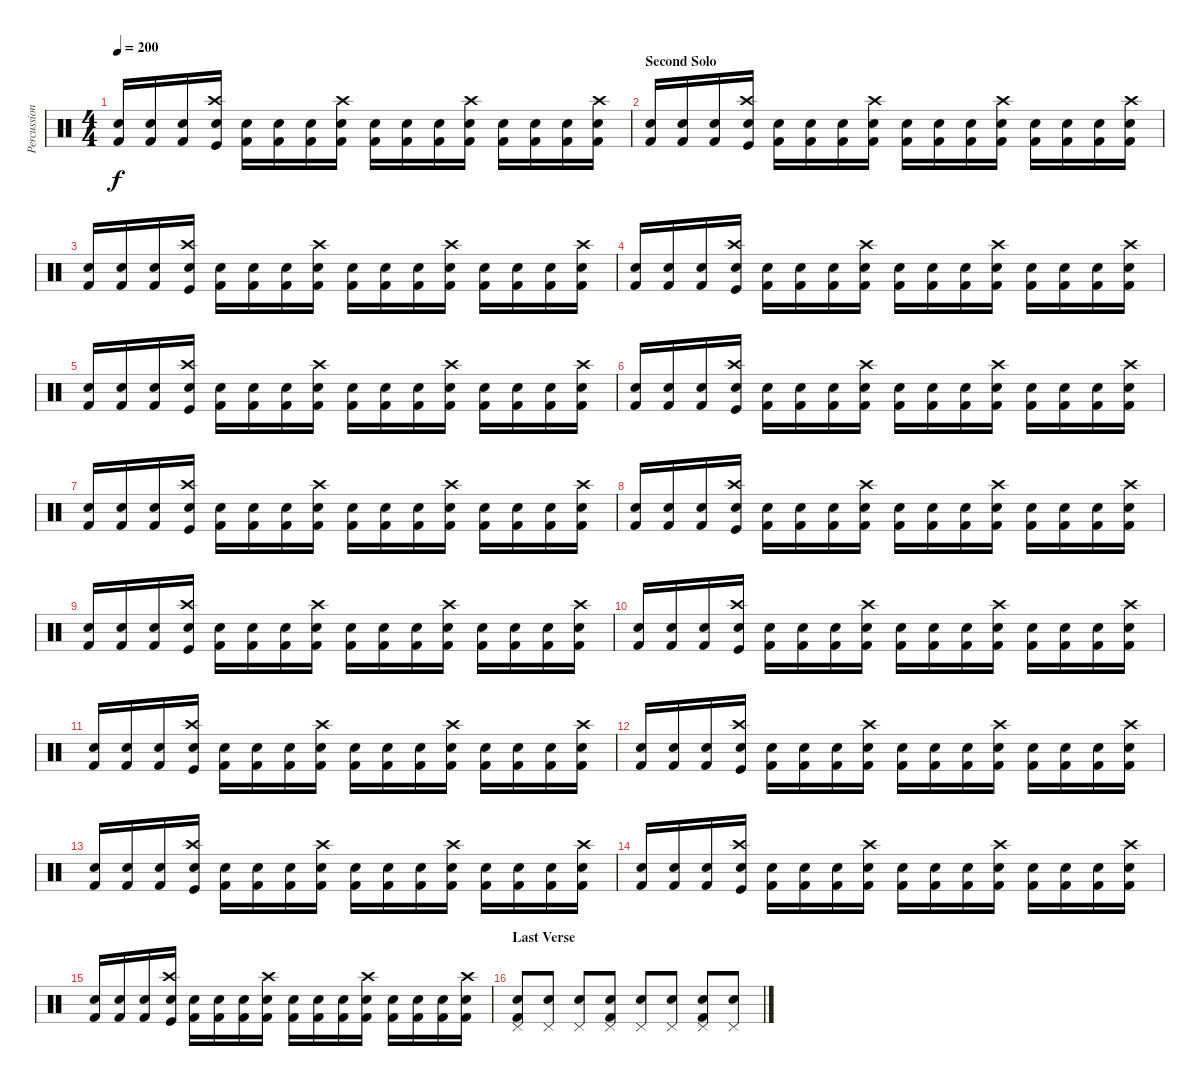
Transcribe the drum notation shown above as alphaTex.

\track ("Percussion" "Percussion") {instrument percussion}
\staff {score}
\articulation defaults
\ts (4 4)
\tempo 200
\clef neutral
\ks c
("Kick (hit) 2" "Snare (hit) 2").16{dy f} ("Snare (hit) 2" "Kick (hit) 2").16 ("Kick (hit) 2" "Snare (hit) 2").16 ("Crash high (hit)" "Kick (hit)" "Snare (hit) 2").16 ("Snare (hit) 2" "Kick (hit) 2").16 ("Kick (hit) 2" "Snare (hit) 2").16 ("Kick (hit) 2" "Snare (hit) 2").16 ("Kick (hit) 2" "Snare (hit) 2" "Crash high (hit)").16 ("Kick (hit) 2" "Snare (hit) 2").16 ("Snare (hit) 2" "Kick (hit) 2").16 ("Kick (hit) 2" "Snare (hit) 2").16 ("Kick (hit) 2" "Snare (hit) 2" "Crash high (hit)").16 ("Kick (hit) 2" "Snare (hit) 2").16 ("Snare (hit) 2" "Kick (hit) 2").16 ("Kick (hit) 2" "Snare (hit) 2").16 ("Kick (hit) 2" "Crash high (hit)" "Snare (hit) 2").16 |
\section ("" "Second Solo")
("Kick (hit) 2" "Snare (hit) 2").16 ("Snare (hit) 2" "Kick (hit) 2").16 ("Kick (hit) 2" "Snare (hit) 2").16 ("Crash high (hit)" "Kick (hit)" "Snare (hit) 2").16 ("Snare (hit) 2" "Kick (hit) 2").16 ("Kick (hit) 2" "Snare (hit) 2").16 ("Kick (hit) 2" "Snare (hit) 2").16 ("Kick (hit) 2" "Snare (hit) 2" "Crash high (hit)").16 ("Kick (hit) 2" "Snare (hit) 2").16 ("Snare (hit) 2" "Kick (hit) 2").16 ("Kick (hit) 2" "Snare (hit) 2").16 ("Kick (hit) 2" "Snare (hit) 2" "Crash high (hit)").16 ("Kick (hit) 2" "Snare (hit) 2").16 ("Snare (hit) 2" "Kick (hit) 2").16 ("Kick (hit) 2" "Snare (hit) 2").16 ("Kick (hit) 2" "Crash high (hit)" "Snare (hit) 2").16 |
("Kick (hit) 2" "Snare (hit) 2").16 ("Snare (hit) 2" "Kick (hit) 2").16 ("Kick (hit) 2" "Snare (hit) 2").16 ("Crash high (hit)" "Kick (hit)" "Snare (hit) 2").16 ("Snare (hit) 2" "Kick (hit) 2").16 ("Kick (hit) 2" "Snare (hit) 2").16 ("Kick (hit) 2" "Snare (hit) 2").16 ("Kick (hit) 2" "Snare (hit) 2" "Crash high (hit)").16 ("Kick (hit) 2" "Snare (hit) 2").16 ("Snare (hit) 2" "Kick (hit) 2").16 ("Kick (hit) 2" "Snare (hit) 2").16 ("Kick (hit) 2" "Snare (hit) 2" "Crash high (hit)").16 ("Kick (hit) 2" "Snare (hit) 2").16 ("Snare (hit) 2" "Kick (hit) 2").16 ("Kick (hit) 2" "Snare (hit) 2").16 ("Kick (hit) 2" "Crash high (hit)" "Snare (hit) 2").16 |
("Kick (hit) 2" "Snare (hit) 2").16 ("Snare (hit) 2" "Kick (hit) 2").16 ("Kick (hit) 2" "Snare (hit) 2").16 ("Crash high (hit)" "Kick (hit)" "Snare (hit) 2").16 ("Snare (hit) 2" "Kick (hit) 2").16 ("Kick (hit) 2" "Snare (hit) 2").16 ("Kick (hit) 2" "Snare (hit) 2").16 ("Kick (hit) 2" "Snare (hit) 2" "Crash high (hit)").16 ("Kick (hit) 2" "Snare (hit) 2").16 ("Snare (hit) 2" "Kick (hit) 2").16 ("Kick (hit) 2" "Snare (hit) 2").16 ("Kick (hit) 2" "Snare (hit) 2" "Crash high (hit)").16 ("Kick (hit) 2" "Snare (hit) 2").16 ("Snare (hit) 2" "Kick (hit) 2").16 ("Kick (hit) 2" "Snare (hit) 2").16 ("Kick (hit) 2" "Crash high (hit)" "Snare (hit) 2").16 |
("Kick (hit) 2" "Snare (hit) 2").16 ("Snare (hit) 2" "Kick (hit) 2").16 ("Kick (hit) 2" "Snare (hit) 2").16 ("Crash high (hit)" "Kick (hit)" "Snare (hit) 2").16 ("Snare (hit) 2" "Kick (hit) 2").16 ("Kick (hit) 2" "Snare (hit) 2").16 ("Kick (hit) 2" "Snare (hit) 2").16 ("Kick (hit) 2" "Snare (hit) 2" "Crash high (hit)").16 ("Kick (hit) 2" "Snare (hit) 2").16 ("Snare (hit) 2" "Kick (hit) 2").16 ("Kick (hit) 2" "Snare (hit) 2").16 ("Kick (hit) 2" "Snare (hit) 2" "Crash high (hit)").16 ("Kick (hit) 2" "Snare (hit) 2").16 ("Snare (hit) 2" "Kick (hit) 2").16 ("Kick (hit) 2" "Snare (hit) 2").16 ("Kick (hit) 2" "Crash high (hit)" "Snare (hit) 2").16 |
("Kick (hit) 2" "Snare (hit) 2").16 ("Snare (hit) 2" "Kick (hit) 2").16 ("Kick (hit) 2" "Snare (hit) 2").16 ("Crash high (hit)" "Kick (hit)" "Snare (hit) 2").16 ("Snare (hit) 2" "Kick (hit) 2").16 ("Kick (hit) 2" "Snare (hit) 2").16 ("Kick (hit) 2" "Snare (hit) 2").16 ("Kick (hit) 2" "Snare (hit) 2" "Crash high (hit)").16 ("Kick (hit) 2" "Snare (hit) 2").16 ("Snare (hit) 2" "Kick (hit) 2").16 ("Kick (hit) 2" "Snare (hit) 2").16 ("Kick (hit) 2" "Snare (hit) 2" "Crash high (hit)").16 ("Kick (hit) 2" "Snare (hit) 2").16 ("Snare (hit) 2" "Kick (hit) 2").16 ("Kick (hit) 2" "Snare (hit) 2").16 ("Kick (hit) 2" "Crash high (hit)" "Snare (hit) 2").16 |
("Kick (hit) 2" "Snare (hit) 2").16 ("Snare (hit) 2" "Kick (hit) 2").16 ("Kick (hit) 2" "Snare (hit) 2").16 ("Crash high (hit)" "Kick (hit)" "Snare (hit) 2").16 ("Snare (hit) 2" "Kick (hit) 2").16 ("Kick (hit) 2" "Snare (hit) 2").16 ("Kick (hit) 2" "Snare (hit) 2").16 ("Kick (hit) 2" "Snare (hit) 2" "Crash high (hit)").16 ("Kick (hit) 2" "Snare (hit) 2").16 ("Snare (hit) 2" "Kick (hit) 2").16 ("Kick (hit) 2" "Snare (hit) 2").16 ("Kick (hit) 2" "Snare (hit) 2" "Crash high (hit)").16 ("Kick (hit) 2" "Snare (hit) 2").16 ("Snare (hit) 2" "Kick (hit) 2").16 ("Kick (hit) 2" "Snare (hit) 2").16 ("Kick (hit) 2" "Crash high (hit)" "Snare (hit) 2").16 |
("Kick (hit) 2" "Snare (hit) 2").16 ("Snare (hit) 2" "Kick (hit) 2").16 ("Kick (hit) 2" "Snare (hit) 2").16 ("Crash high (hit)" "Kick (hit)" "Snare (hit) 2").16 ("Snare (hit) 2" "Kick (hit) 2").16 ("Kick (hit) 2" "Snare (hit) 2").16 ("Kick (hit) 2" "Snare (hit) 2").16 ("Kick (hit) 2" "Snare (hit) 2" "Crash high (hit)").16 ("Kick (hit) 2" "Snare (hit) 2").16 ("Snare (hit) 2" "Kick (hit) 2").16 ("Kick (hit) 2" "Snare (hit) 2").16 ("Kick (hit) 2" "Snare (hit) 2" "Crash high (hit)").16 ("Kick (hit) 2" "Snare (hit) 2").16 ("Snare (hit) 2" "Kick (hit) 2").16 ("Kick (hit) 2" "Snare (hit) 2").16 ("Kick (hit) 2" "Crash high (hit)" "Snare (hit) 2").16 |
("Kick (hit) 2" "Snare (hit) 2").16 ("Snare (hit) 2" "Kick (hit) 2").16 ("Kick (hit) 2" "Snare (hit) 2").16 ("Crash high (hit)" "Kick (hit)" "Snare (hit) 2").16 ("Snare (hit) 2" "Kick (hit) 2").16 ("Kick (hit) 2" "Snare (hit) 2").16 ("Kick (hit) 2" "Snare (hit) 2").16 ("Kick (hit) 2" "Snare (hit) 2" "Crash high (hit)").16 ("Kick (hit) 2" "Snare (hit) 2").16 ("Snare (hit) 2" "Kick (hit) 2").16 ("Kick (hit) 2" "Snare (hit) 2").16 ("Kick (hit) 2" "Snare (hit) 2" "Crash high (hit)").16 ("Kick (hit) 2" "Snare (hit) 2").16 ("Snare (hit) 2" "Kick (hit) 2").16 ("Kick (hit) 2" "Snare (hit) 2").16 ("Kick (hit) 2" "Crash high (hit)" "Snare (hit) 2").16 |
("Kick (hit) 2" "Snare (hit) 2").16 ("Snare (hit) 2" "Kick (hit) 2").16 ("Kick (hit) 2" "Snare (hit) 2").16 ("Crash high (hit)" "Kick (hit)" "Snare (hit) 2").16 ("Snare (hit) 2" "Kick (hit) 2").16 ("Kick (hit) 2" "Snare (hit) 2").16 ("Kick (hit) 2" "Snare (hit) 2").16 ("Kick (hit) 2" "Snare (hit) 2" "Crash high (hit)").16 ("Kick (hit) 2" "Snare (hit) 2").16 ("Snare (hit) 2" "Kick (hit) 2").16 ("Kick (hit) 2" "Snare (hit) 2").16 ("Kick (hit) 2" "Snare (hit) 2" "Crash high (hit)").16 ("Kick (hit) 2" "Snare (hit) 2").16 ("Snare (hit) 2" "Kick (hit) 2").16 ("Kick (hit) 2" "Snare (hit) 2").16 ("Kick (hit) 2" "Crash high (hit)" "Snare (hit) 2").16 |
("Kick (hit) 2" "Snare (hit) 2").16 ("Snare (hit) 2" "Kick (hit) 2").16 ("Kick (hit) 2" "Snare (hit) 2").16 ("Crash high (hit)" "Kick (hit)" "Snare (hit) 2").16 ("Snare (hit) 2" "Kick (hit) 2").16 ("Kick (hit) 2" "Snare (hit) 2").16 ("Kick (hit) 2" "Snare (hit) 2").16 ("Kick (hit) 2" "Snare (hit) 2" "Crash high (hit)").16 ("Kick (hit) 2" "Snare (hit) 2").16 ("Snare (hit) 2" "Kick (hit) 2").16 ("Kick (hit) 2" "Snare (hit) 2").16 ("Kick (hit) 2" "Snare (hit) 2" "Crash high (hit)").16 ("Kick (hit) 2" "Snare (hit) 2").16 ("Snare (hit) 2" "Kick (hit) 2").16 ("Kick (hit) 2" "Snare (hit) 2").16 ("Kick (hit) 2" "Crash high (hit)" "Snare (hit) 2").16 |
("Kick (hit) 2" "Snare (hit) 2").16 ("Snare (hit) 2" "Kick (hit) 2").16 ("Kick (hit) 2" "Snare (hit) 2").16 ("Crash high (hit)" "Kick (hit)" "Snare (hit) 2").16 ("Snare (hit) 2" "Kick (hit) 2").16 ("Kick (hit) 2" "Snare (hit) 2").16 ("Kick (hit) 2" "Snare (hit) 2").16 ("Kick (hit) 2" "Snare (hit) 2" "Crash high (hit)").16 ("Kick (hit) 2" "Snare (hit) 2").16 ("Snare (hit) 2" "Kick (hit) 2").16 ("Kick (hit) 2" "Snare (hit) 2").16 ("Kick (hit) 2" "Snare (hit) 2" "Crash high (hit)").16 ("Kick (hit) 2" "Snare (hit) 2").16 ("Snare (hit) 2" "Kick (hit) 2").16 ("Kick (hit) 2" "Snare (hit) 2").16 ("Kick (hit) 2" "Crash high (hit)" "Snare (hit) 2").16 |
("Kick (hit) 2" "Snare (hit) 2").16 ("Snare (hit) 2" "Kick (hit) 2").16 ("Kick (hit) 2" "Snare (hit) 2").16 ("Crash high (hit)" "Kick (hit)" "Snare (hit) 2").16 ("Snare (hit) 2" "Kick (hit) 2").16 ("Kick (hit) 2" "Snare (hit) 2").16 ("Kick (hit) 2" "Snare (hit) 2").16 ("Kick (hit) 2" "Snare (hit) 2" "Crash high (hit)").16 ("Kick (hit) 2" "Snare (hit) 2").16 ("Snare (hit) 2" "Kick (hit) 2").16 ("Kick (hit) 2" "Snare (hit) 2").16 ("Kick (hit) 2" "Snare (hit) 2" "Crash high (hit)").16 ("Kick (hit) 2" "Snare (hit) 2").16 ("Snare (hit) 2" "Kick (hit) 2").16 ("Kick (hit) 2" "Snare (hit) 2").16 ("Kick (hit) 2" "Crash high (hit)" "Snare (hit) 2").16 |
("Kick (hit) 2" "Snare (hit) 2").16 ("Snare (hit) 2" "Kick (hit) 2").16 ("Kick (hit) 2" "Snare (hit) 2").16 ("Crash high (hit)" "Kick (hit)" "Snare (hit) 2").16 ("Snare (hit) 2" "Kick (hit) 2").16 ("Kick (hit) 2" "Snare (hit) 2").16 ("Kick (hit) 2" "Snare (hit) 2").16 ("Kick (hit) 2" "Snare (hit) 2" "Crash high (hit)").16 ("Kick (hit) 2" "Snare (hit) 2").16 ("Snare (hit) 2" "Kick (hit) 2").16 ("Kick (hit) 2" "Snare (hit) 2").16 ("Kick (hit) 2" "Snare (hit) 2" "Crash high (hit)").16 ("Kick (hit) 2" "Snare (hit) 2").16 ("Snare (hit) 2" "Kick (hit) 2").16 ("Kick (hit) 2" "Snare (hit) 2").16 ("Kick (hit) 2" "Crash high (hit)" "Snare (hit) 2").16 |
("Kick (hit) 2" "Snare (hit) 2").16 ("Snare (hit) 2" "Kick (hit) 2").16 ("Kick (hit) 2" "Snare (hit) 2").16 ("Crash high (hit)" "Kick (hit)" "Snare (hit) 2").16 ("Snare (hit) 2" "Kick (hit) 2").16 ("Kick (hit) 2" "Snare (hit) 2").16 ("Kick (hit) 2" "Snare (hit) 2").16 ("Kick (hit) 2" "Snare (hit) 2" "Crash high (hit)").16 ("Kick (hit) 2" "Snare (hit) 2").16 ("Snare (hit) 2" "Kick (hit) 2").16 ("Kick (hit) 2" "Snare (hit) 2").16 ("Kick (hit) 2" "Snare (hit) 2" "Crash high (hit)").16 ("Kick (hit) 2" "Snare (hit) 2").16 ("Snare (hit) 2" "Kick (hit) 2").16 ("Kick (hit) 2" "Snare (hit) 2").16 ("Kick (hit) 2" "Crash high (hit)" "Snare (hit) 2").16 |
\section ("" "Last Verse")
("Pedal Hi-Hat (hit)" "Kick (hit) 2" "Snare (hit) 2").8 ("Pedal Hi-Hat (hit)" "Electric Snare (hit)").8 ("Pedal Hi-Hat (hit)" "Electric Snare (hit)").8 ("Pedal Hi-Hat (hit)" "Snare (hit) 2" "Kick (hit) 2").8 ("Pedal Hi-Hat (hit)" "Electric Snare (hit)").8 ("Pedal Hi-Hat (hit)" "Electric Snare (hit)").8 ("Pedal Hi-Hat (hit)" "Kick (hit) 2" "Snare (hit) 2").8 ("Pedal Hi-Hat (hit)" "Electric Snare (hit)").8
